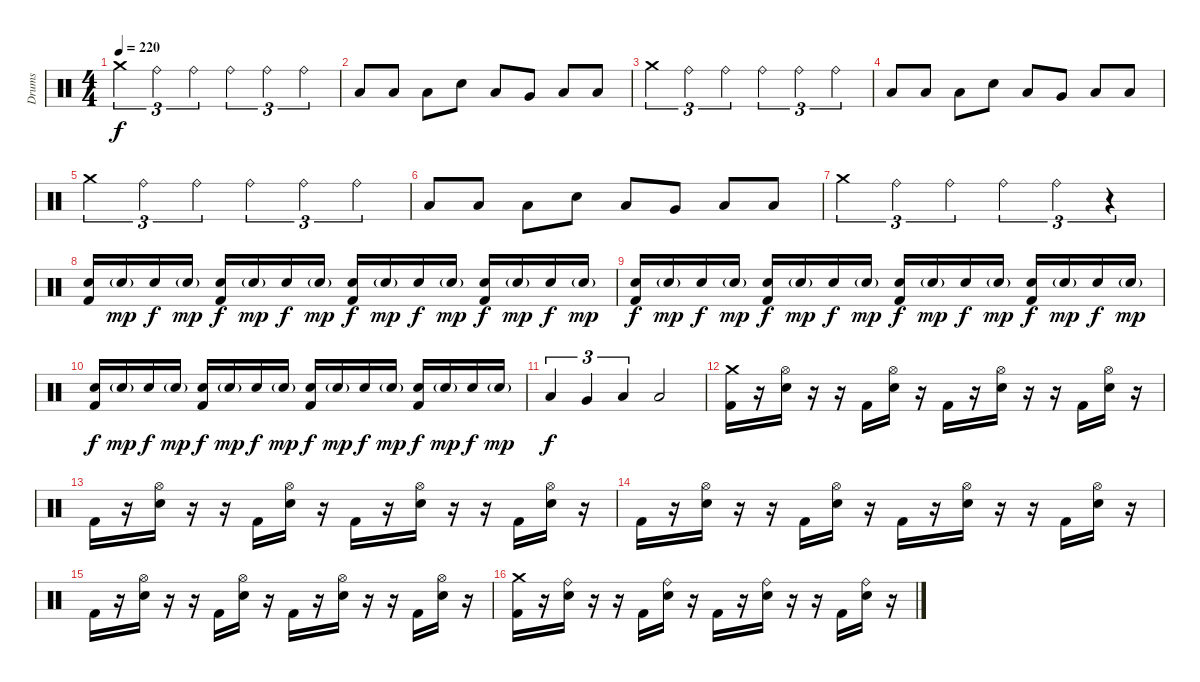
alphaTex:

\track ("Drums" "Drums") {instrument percussion}
\staff {score}
\articulation defaults
\ts (4 4)
\tempo 220
\clef neutral
\ks c "Crash medium (hit)".4{tu (3 2) dy f} "Ride (bell)".4{tu (3 2)} "Ride (bell)".4{tu (3 2)} "Ride (bell)".4{tu (3 2)} "Ride (bell)".4{tu (3 2)} "Ride (bell)".4{tu (3 2)}
|
"Low Floor Tom (hit)".8 "Low Floor Tom (hit)".8 "Low Floor Tom (hit)".8 "Snare (hit) 2".8 "Low Floor Tom (hit)".8 "Very Low Tom (hit)".8 "Low Floor Tom (hit)".8 "Low Floor Tom (hit)".8 |
"Crash medium (hit)".4{tu (3 2)} "Ride (bell)".4{tu (3 2)} "Ride (bell)".4{tu (3 2)} "Ride (bell)".4{tu (3 2)} "Ride (bell)".4{tu (3 2)} "Ride (bell)".4{tu (3 2)} |
"Low Floor Tom (hit)".8 "Low Floor Tom (hit)".8 "Low Floor Tom (hit)".8 "Snare (hit) 2".8 "Low Floor Tom (hit)".8 "Very Low Tom (hit)".8 "Low Floor Tom (hit)".8 "Low Floor Tom (hit)".8 |
"Crash medium (hit)".4{tu (3 2)} "Ride (bell)".4{tu (3 2)} "Ride (bell)".4{tu (3 2)} "Ride (bell)".4{tu (3 2)} "Ride (bell)".4{tu (3 2)} "Ride (bell)".4{tu (3 2)} |
"Low Floor Tom (hit)".8 "Low Floor Tom (hit)".8 "Low Floor Tom (hit)".8 "Snare (hit) 2".8 "Low Floor Tom (hit)".8 "Very Low Tom (hit)".8 "Low Floor Tom (hit)".8 "Low Floor Tom (hit)".8 |
"Crash medium (hit)".4{tu (3 2)} "Ride (bell)".4{tu (3 2)} "Ride (bell)".4{tu (3 2)} "Ride (bell)".4{tu (3 2)} "Ride (bell)".4{tu (3 2)} r.4{tu (3 2)} |
("Snare (hit) 2" "Kick (hit) 2").16 "Snare (hit) 2"{g}.16{dy mp} "Snare (hit) 2".16{dy f} "Snare (hit) 2"{g}.16{dy mp} ("Snare (hit) 2" "Kick (hit) 2").16{dy f} "Snare (hit) 2"{g}.16{dy mp} "Snare (hit) 2".16{dy f} "Snare (hit) 2"{g}.16{dy mp} ("Snare (hit) 2" "Kick (hit) 2").16{dy f} "Snare (hit) 2"{g}.16{dy mp} "Snare (hit) 2".16{dy f} "Snare (hit) 2"{g}.16{dy mp} ("Snare (hit) 2" "Kick (hit) 2").16{dy f} "Snare (hit) 2"{g}.16{dy mp} "Snare (hit) 2".16{dy f} "Snare (hit) 2"{g}.16{dy mp} |
("Snare (hit) 2" "Kick (hit) 2").16{dy f} "Snare (hit) 2"{g}.16{dy mp} "Snare (hit) 2".16{dy f} "Snare (hit) 2"{g}.16{dy mp} ("Snare (hit) 2" "Kick (hit) 2").16{dy f} "Snare (hit) 2"{g}.16{dy mp} "Snare (hit) 2".16{dy f} "Snare (hit) 2"{g}.16{dy mp} ("Snare (hit) 2" "Kick (hit) 2").16{dy f} "Snare (hit) 2"{g}.16{dy mp} "Snare (hit) 2".16{dy f} "Snare (hit) 2"{g}.16{dy mp} ("Snare (hit) 2" "Kick (hit) 2").16{dy f} "Snare (hit) 2"{g}.16{dy mp} "Snare (hit) 2".16{dy f} "Snare (hit) 2"{g}.16{dy mp} |
("Snare (hit) 2" "Kick (hit) 2").16{dy f} "Snare (hit) 2"{g}.16{dy mp} "Snare (hit) 2".16{dy f} "Snare (hit) 2"{g}.16{dy mp} ("Snare (hit) 2" "Kick (hit) 2").16{dy f} "Snare (hit) 2"{g}.16{dy mp} "Snare (hit) 2".16{dy f} "Snare (hit) 2"{g}.16{dy mp} ("Snare (hit) 2" "Kick (hit) 2").16{dy f} "Snare (hit) 2"{g}.16{dy mp} "Snare (hit) 2".16{dy f} "Snare (hit) 2"{g}.16{dy mp} ("Snare (hit) 2" "Kick (hit) 2").16{dy f} "Snare (hit) 2"{g}.16{dy mp} "Snare (hit) 2".16{dy f} "Snare (hit) 2"{g}.16{dy mp} |
"Low Tom (hit)".4{tu (3 2) dy f} "Very Low Tom (hit)".4{tu (3 2)} "Low Floor Tom (hit)".4{tu (3 2)} "Low Floor Tom (hit)".2 |
("Crash medium (hit)" "Kick (hit) 2").16 r.16 ("Hi-Hat (open)" "Snare (hit) 2").16 r.16 r.16 "Kick (hit) 2".16 ("Hi-Hat (open)" "Snare (hit) 2").16 r.16 "Kick (hit) 2".16 r.16 ("Hi-Hat (open)" "Snare (hit) 2").16 r.16 r.16 "Kick (hit) 2".16 ("Hi-Hat (open)" "Snare (hit) 2").16 r.16 |
"Kick (hit) 2".16 r.16 ("Hi-Hat (open)" "Snare (hit) 2").16 r.16 r.16 "Kick (hit) 2".16 ("Hi-Hat (open)" "Snare (hit) 2").16 r.16 "Kick (hit) 2".16 r.16 ("Hi-Hat (open)" "Snare (hit) 2").16 r.16 r.16 "Kick (hit) 2".16 ("Hi-Hat (open)" "Snare (hit) 2").16 r.16 |
"Kick (hit) 2".16 r.16 ("Hi-Hat (open)" "Snare (hit) 2").16 r.16 r.16 "Kick (hit) 2".16 ("Hi-Hat (open)" "Snare (hit) 2").16 r.16 "Kick (hit) 2".16 r.16 ("Hi-Hat (open)" "Snare (hit) 2").16 r.16 r.16 "Kick (hit) 2".16 ("Hi-Hat (open)" "Snare (hit) 2").16 r.16 |
"Kick (hit) 2".16 r.16 ("Hi-Hat (open)" "Snare (hit) 2").16 r.16 r.16 "Kick (hit) 2".16 ("Hi-Hat (open)" "Snare (hit) 2").16 r.16 "Kick (hit) 2".16 r.16 ("Hi-Hat (open)" "Snare (hit) 2").16 r.16 r.16 "Kick (hit) 2".16 ("Hi-Hat (open)" "Snare (hit) 2").16 r.16 |
("Crash medium (hit)" "Kick (hit) 2").16 r.16 ("Ride (bell)" "Snare (hit) 2").16 r.16 r.16 "Kick (hit) 2".16 ("Ride (bell)" "Snare (hit) 2").16 r.16 "Kick (hit) 2".16 r.16 ("Ride (bell)" "Snare (hit) 2").16 r.16 r.16 "Kick (hit) 2".16 ("Ride (bell)" "Snare (hit) 2").16 r.16
